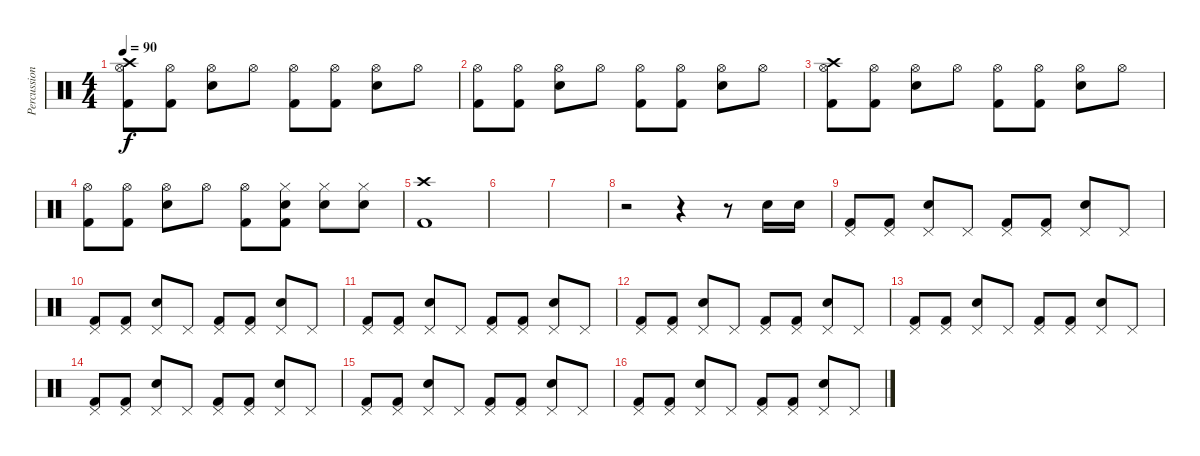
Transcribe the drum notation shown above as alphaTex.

\track ("Percussion" "Percussion") {instrument percussion}
\staff {score}
\articulation defaults
\ts (4 4)
\tempo 90
\clef neutral
\ks c
("Hi-Hat (open)" "Kick (hit) 2" "Crash high (hit)").8{dy f} ("Hi-Hat (open)" "Kick (hit) 2").8 ("Hi-Hat (open)" "Electric Snare (hit)").8 "Hi-Hat (open)".8 ("Hi-Hat (open)" "Kick (hit) 2").8 ("Hi-Hat (open)" "Kick (hit) 2").8 ("Hi-Hat (open)" "Electric Snare (hit)").8 "Hi-Hat (open)".8 |
("Hi-Hat (open)" "Kick (hit) 2").8 ("Hi-Hat (open)" "Kick (hit) 2").8 ("Hi-Hat (open)" "Electric Snare (hit)").8 "Hi-Hat (open)".8 ("Hi-Hat (open)" "Kick (hit) 2").8 ("Hi-Hat (open)" "Kick (hit) 2").8 ("Hi-Hat (open)" "Electric Snare (hit)").8 "Hi-Hat (open)".8 |
("Hi-Hat (open)" "Kick (hit) 2" "Crash high (hit)").8 ("Hi-Hat (open)" "Kick (hit) 2").8 ("Hi-Hat (open)" "Electric Snare (hit)").8 "Hi-Hat (open)".8 ("Hi-Hat (open)" "Kick (hit) 2").8 ("Hi-Hat (open)" "Kick (hit) 2").8 ("Hi-Hat (open)" "Electric Snare (hit)").8 "Hi-Hat (open)".8 |
("Hi-Hat (open)" "Kick (hit) 2").8 ("Hi-Hat (open)" "Kick (hit) 2").8 ("Hi-Hat (open)" "Electric Snare (hit)").8 "Hi-Hat (open)".8 ("Hi-Hat (open)" "Kick (hit) 2").8 ("Electric Snare (hit)" "Kick (hit) 2" "Hi-Hat (closed)").8 ("Electric Snare (hit)" "Hi-Hat (closed)").8 ("Electric Snare (hit)" "Hi-Hat (closed)").8 |
("Crash high (hit)" "Kick (hit) 2").1 |
|
|
r.2 r.4 r.8 "Electric Snare (hit)".16 "Electric Snare (hit)".16 |
("Pedal Hi-Hat (hit)" "Kick (hit) 2").8 ("Pedal Hi-Hat (hit)" "Kick (hit) 2").8 ("Pedal Hi-Hat (hit)" "Electric Snare (hit)").8 "Pedal Hi-Hat (hit)".8 ("Pedal Hi-Hat (hit)" "Kick (hit) 2").8 ("Pedal Hi-Hat (hit)" "Kick (hit) 2").8 ("Pedal Hi-Hat (hit)" "Electric Snare (hit)").8 "Pedal Hi-Hat (hit)".8 |
("Pedal Hi-Hat (hit)" "Kick (hit) 2").8 ("Pedal Hi-Hat (hit)" "Kick (hit) 2").8 ("Pedal Hi-Hat (hit)" "Electric Snare (hit)").8 "Pedal Hi-Hat (hit)".8 ("Pedal Hi-Hat (hit)" "Kick (hit) 2").8 ("Pedal Hi-Hat (hit)" "Kick (hit) 2").8 ("Pedal Hi-Hat (hit)" "Electric Snare (hit)").8 "Pedal Hi-Hat (hit)".8 |
("Pedal Hi-Hat (hit)" "Kick (hit) 2").8 ("Pedal Hi-Hat (hit)" "Kick (hit) 2").8 ("Pedal Hi-Hat (hit)" "Electric Snare (hit)").8 "Pedal Hi-Hat (hit)".8 ("Pedal Hi-Hat (hit)" "Kick (hit) 2").8 ("Pedal Hi-Hat (hit)" "Kick (hit) 2").8 ("Pedal Hi-Hat (hit)" "Electric Snare (hit)").8 "Pedal Hi-Hat (hit)".8 |
("Pedal Hi-Hat (hit)" "Kick (hit) 2").8 ("Pedal Hi-Hat (hit)" "Kick (hit) 2").8 ("Pedal Hi-Hat (hit)" "Electric Snare (hit)").8 "Pedal Hi-Hat (hit)".8 ("Pedal Hi-Hat (hit)" "Kick (hit) 2").8 ("Pedal Hi-Hat (hit)" "Kick (hit) 2").8 ("Pedal Hi-Hat (hit)" "Electric Snare (hit)").8 "Pedal Hi-Hat (hit)".8 |
("Pedal Hi-Hat (hit)" "Kick (hit) 2").8 ("Pedal Hi-Hat (hit)" "Kick (hit) 2").8 ("Pedal Hi-Hat (hit)" "Electric Snare (hit)").8 "Pedal Hi-Hat (hit)".8 ("Pedal Hi-Hat (hit)" "Kick (hit) 2").8 ("Pedal Hi-Hat (hit)" "Kick (hit) 2").8 ("Pedal Hi-Hat (hit)" "Electric Snare (hit)").8 "Pedal Hi-Hat (hit)".8 |
("Pedal Hi-Hat (hit)" "Kick (hit) 2").8 ("Pedal Hi-Hat (hit)" "Kick (hit) 2").8 ("Pedal Hi-Hat (hit)" "Electric Snare (hit)").8 "Pedal Hi-Hat (hit)".8 ("Pedal Hi-Hat (hit)" "Kick (hit) 2").8 ("Pedal Hi-Hat (hit)" "Kick (hit) 2").8 ("Pedal Hi-Hat (hit)" "Electric Snare (hit)").8 "Pedal Hi-Hat (hit)".8 |
("Pedal Hi-Hat (hit)" "Kick (hit) 2").8 ("Pedal Hi-Hat (hit)" "Kick (hit) 2").8 ("Pedal Hi-Hat (hit)" "Electric Snare (hit)").8 "Pedal Hi-Hat (hit)".8 ("Pedal Hi-Hat (hit)" "Kick (hit) 2").8 ("Pedal Hi-Hat (hit)" "Kick (hit) 2").8 ("Pedal Hi-Hat (hit)" "Electric Snare (hit)").8 "Pedal Hi-Hat (hit)".8 |
("Pedal Hi-Hat (hit)" "Kick (hit) 2").8 ("Pedal Hi-Hat (hit)" "Kick (hit) 2").8 ("Pedal Hi-Hat (hit)" "Electric Snare (hit)").8 "Pedal Hi-Hat (hit)".8 ("Pedal Hi-Hat (hit)" "Kick (hit) 2").8 ("Pedal Hi-Hat (hit)" "Kick (hit) 2").8 ("Pedal Hi-Hat (hit)" "Electric Snare (hit)").8 "Pedal Hi-Hat (hit)".8
